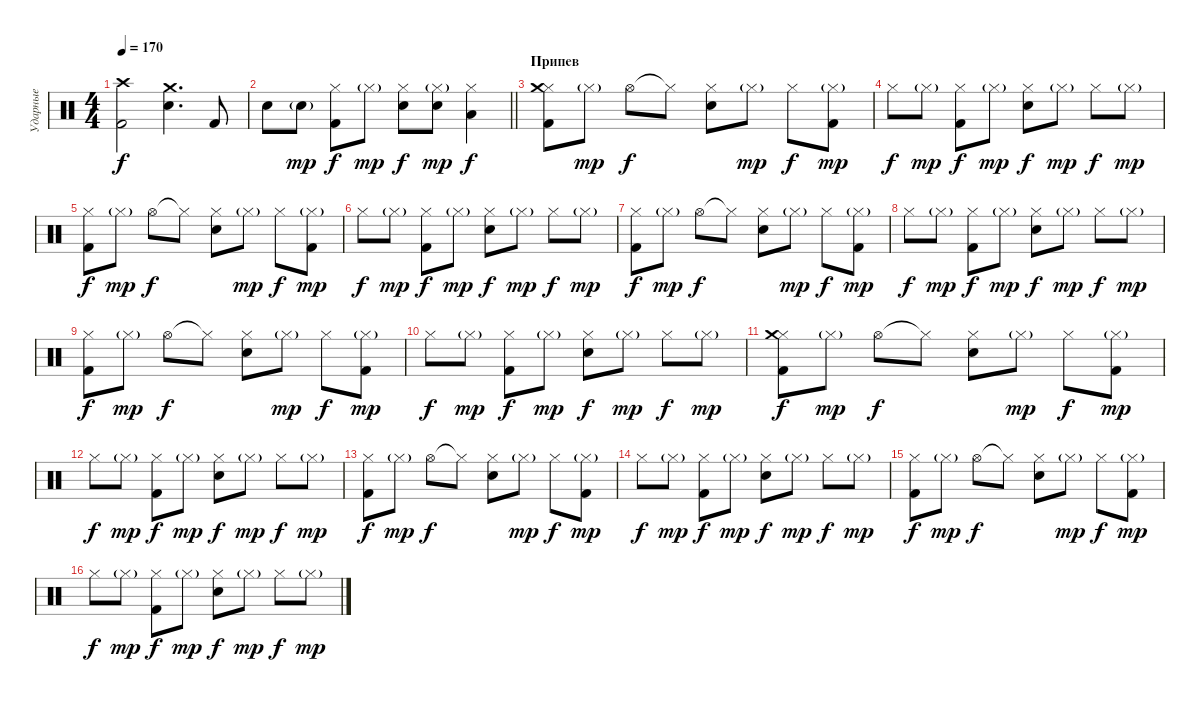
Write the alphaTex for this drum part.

\track ("Ударные" "Ударные") {instrument percussion}
\staff {score}
\articulation defaults
\ts (4 4)
\tempo 170
\clef neutral
\ks c
("Kick (hit) 2" "Crash high (hit)").2{dy f} ("Electric Snare (hit)" "Crash medium (hit)").4{d} "Kick (hit) 2".8 |
\barLineRight lightlight "Electric Snare (hit)".8 "Electric Snare (hit)"{g}.8{dy mp}
("Kick (hit) 2" "Hi-Hat (closed)").8{dy f} "Hi-Hat (closed)"{g}.8{dy mp} ("Electric Snare (hit)" "Hi-Hat (closed)").8{dy f} ("Electric Snare (hit)" "Hi-Hat (closed)"{g}).8{dy mp} ("Low Floor Tom (hit)" "Hi-Hat (closed)").4{dy f} |
\section ("" "Припев")
("Kick (hit) 2" "Hi-Hat (closed)" "Crash medium (hit)").8 "Hi-Hat (closed)"{g}.8{dy mp} "Hi-Hat (open)".8{dy f} "Hi-Hat (closed)"{t}.8 ("Electric Snare (hit)" "Hi-Hat (closed)").8 "Hi-Hat (closed)"{g}.8{dy mp} "Hi-Hat (closed)".8{dy f} ("Kick (hit) 2" "Hi-Hat (closed)"{g}).8{dy mp} |
"Hi-Hat (closed)".8{dy f} "Hi-Hat (closed)"{g}.8{dy mp} ("Kick (hit) 2" "Hi-Hat (closed)").8{dy f} "Hi-Hat (closed)"{g}.8{dy mp} ("Electric Snare (hit)" "Hi-Hat (closed)").8{dy f} "Hi-Hat (closed)"{g}.8{dy mp} "Hi-Hat (closed)".8{dy f} "Hi-Hat (closed)"{g}.8{dy mp} |
("Kick (hit) 2" "Hi-Hat (closed)").8{dy f} "Hi-Hat (closed)"{g}.8{dy mp} "Hi-Hat (open)".8{dy f} "Hi-Hat (closed)"{t}.8 ("Electric Snare (hit)" "Hi-Hat (closed)").8 "Hi-Hat (closed)"{g}.8{dy mp} "Hi-Hat (closed)".8{dy f} ("Kick (hit) 2" "Hi-Hat (closed)"{g}).8{dy mp} |
"Hi-Hat (closed)".8{dy f} "Hi-Hat (closed)"{g}.8{dy mp} ("Kick (hit) 2" "Hi-Hat (closed)").8{dy f} "Hi-Hat (closed)"{g}.8{dy mp} ("Electric Snare (hit)" "Hi-Hat (closed)").8{dy f} "Hi-Hat (closed)"{g}.8{dy mp} "Hi-Hat (closed)".8{dy f} "Hi-Hat (closed)"{g}.8{dy mp} |
("Kick (hit) 2" "Hi-Hat (closed)").8{dy f} "Hi-Hat (closed)"{g}.8{dy mp} "Hi-Hat (open)".8{dy f} "Hi-Hat (closed)"{t}.8 ("Electric Snare (hit)" "Hi-Hat (closed)").8 "Hi-Hat (closed)"{g}.8{dy mp} "Hi-Hat (closed)".8{dy f} ("Kick (hit) 2" "Hi-Hat (closed)"{g}).8{dy mp} |
"Hi-Hat (closed)".8{dy f} "Hi-Hat (closed)"{g}.8{dy mp} ("Kick (hit) 2" "Hi-Hat (closed)").8{dy f} "Hi-Hat (closed)"{g}.8{dy mp} ("Electric Snare (hit)" "Hi-Hat (closed)").8{dy f} "Hi-Hat (closed)"{g}.8{dy mp} "Hi-Hat (closed)".8{dy f} "Hi-Hat (closed)"{g}.8{dy mp} |
("Kick (hit) 2" "Hi-Hat (closed)").8{dy f} "Hi-Hat (closed)"{g}.8{dy mp} "Hi-Hat (open)".8{dy f} "Hi-Hat (closed)"{t}.8 ("Electric Snare (hit)" "Hi-Hat (closed)").8 "Hi-Hat (closed)"{g}.8{dy mp} "Hi-Hat (closed)".8{dy f} ("Kick (hit) 2" "Hi-Hat (closed)"{g}).8{dy mp} |
"Hi-Hat (closed)".8{dy f} "Hi-Hat (closed)"{g}.8{dy mp} ("Kick (hit) 2" "Hi-Hat (closed)").8{dy f} "Hi-Hat (closed)"{g}.8{dy mp} ("Electric Snare (hit)" "Hi-Hat (closed)").8{dy f} "Hi-Hat (closed)"{g}.8{dy mp} "Hi-Hat (closed)".8{dy f} "Hi-Hat (closed)"{g}.8{dy mp} |
("Kick (hit) 2" "Hi-Hat (closed)" "Crash medium (hit)").8{dy f} "Hi-Hat (closed)"{g}.8{dy mp} "Hi-Hat (open)".8{dy f} "Hi-Hat (closed)"{t}.8 ("Electric Snare (hit)" "Hi-Hat (closed)").8 "Hi-Hat (closed)"{g}.8{dy mp} "Hi-Hat (closed)".8{dy f} ("Kick (hit) 2" "Hi-Hat (closed)"{g}).8{dy mp} |
"Hi-Hat (closed)".8{dy f} "Hi-Hat (closed)"{g}.8{dy mp} ("Kick (hit) 2" "Hi-Hat (closed)").8{dy f} "Hi-Hat (closed)"{g}.8{dy mp} ("Electric Snare (hit)" "Hi-Hat (closed)").8{dy f} "Hi-Hat (closed)"{g}.8{dy mp} "Hi-Hat (closed)".8{dy f} "Hi-Hat (closed)"{g}.8{dy mp} |
("Kick (hit) 2" "Hi-Hat (closed)").8{dy f} "Hi-Hat (closed)"{g}.8{dy mp} "Hi-Hat (open)".8{dy f} "Hi-Hat (closed)"{t}.8 ("Electric Snare (hit)" "Hi-Hat (closed)").8 "Hi-Hat (closed)"{g}.8{dy mp} "Hi-Hat (closed)".8{dy f} ("Kick (hit) 2" "Hi-Hat (closed)"{g}).8{dy mp} |
"Hi-Hat (closed)".8{dy f} "Hi-Hat (closed)"{g}.8{dy mp} ("Kick (hit) 2" "Hi-Hat (closed)").8{dy f} "Hi-Hat (closed)"{g}.8{dy mp} ("Electric Snare (hit)" "Hi-Hat (closed)").8{dy f} "Hi-Hat (closed)"{g}.8{dy mp} "Hi-Hat (closed)".8{dy f} "Hi-Hat (closed)"{g}.8{dy mp} |
("Kick (hit) 2" "Hi-Hat (closed)").8{dy f} "Hi-Hat (closed)"{g}.8{dy mp} "Hi-Hat (open)".8{dy f} "Hi-Hat (closed)"{t}.8 ("Electric Snare (hit)" "Hi-Hat (closed)").8 "Hi-Hat (closed)"{g}.8{dy mp} "Hi-Hat (closed)".8{dy f} ("Kick (hit) 2" "Hi-Hat (closed)"{g}).8{dy mp} |
"Hi-Hat (closed)".8{dy f} "Hi-Hat (closed)"{g}.8{dy mp} ("Kick (hit) 2" "Hi-Hat (closed)").8{dy f} "Hi-Hat (closed)"{g}.8{dy mp} ("Electric Snare (hit)" "Hi-Hat (closed)").8{dy f} "Hi-Hat (closed)"{g}.8{dy mp} "Hi-Hat (closed)".8{dy f} "Hi-Hat (closed)"{g}.8{dy mp}
